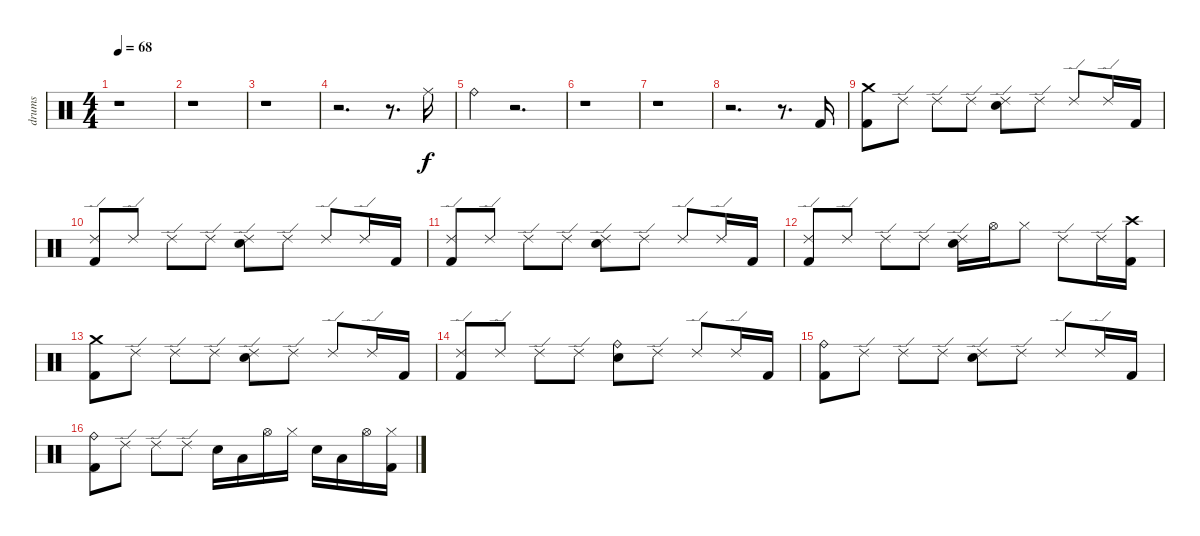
\track ("drums" "drums") {instrument percussion}
\staff {score}
\articulation defaults
\ts (4 4)
\tempo 68
\clef neutral
\ks c
r.1{dy f} |
r.1 |
r.1 |
r.2{d} r.8{d} "Ride (middle)".16 |
"Ride (bell)".4 r.2{d} |
r.1 |
r.1 |
r.2{d} r.8{d} "Kick (hit) 2".16 |
("Crash medium (hit)" "Kick (hit) 2").8 "Ride (edge) 2".8 "Ride (edge) 2".8 "Ride (edge) 2".8 ("Ride (edge) 2" "Electric Snare (hit)").8 "Ride (edge) 2".8 "Ride (edge) 2".8 "Ride (edge) 2".16 "Kick (hit) 2".16 |
("Ride (edge) 2" "Kick (hit) 2").8 "Ride (edge) 2".8 "Ride (edge) 2".8 "Ride (edge) 2".8 ("Ride (edge) 2" "Electric Snare (hit)").8 "Ride (edge) 2".8 "Ride (edge) 2".8 "Ride (edge) 2".16 "Kick (hit) 2".16 |
("Ride (edge) 2" "Kick (hit) 2").8 "Ride (edge) 2".8 "Ride (edge) 2".8 "Ride (edge) 2".8 ("Ride (edge) 2" "Electric Snare (hit)").8 "Ride (edge) 2".8 "Ride (edge) 2".8 "Ride (edge) 2".16 "Kick (hit) 2".16 |
("Ride (edge) 2" "Kick (hit) 2").8 "Ride (edge) 2".8 "Ride (edge) 2".8 "Ride (edge) 2".8 ("Ride (edge) 2" "Electric Snare (hit)").16 "Hi-Hat (open)".16 "Hi-Hat (closed)".8 "Ride (edge) 2".8 "Ride (edge) 2".16 ("Crash high (hit)" "Kick (hit) 2").16 |
("Crash medium (hit)" "Kick (hit) 2").8 "Ride (edge) 2".8 "Ride (edge) 2".8 "Ride (edge) 2".8 ("Ride (edge) 2" "Electric Snare (hit)").8 "Ride (edge) 2".8 "Ride (edge) 2".8 "Ride (edge) 2".16 "Kick (hit) 2".16 |
("Ride (edge) 2" "Kick (hit) 2").8 "Ride (edge) 2".8 "Ride (edge) 2".8 "Ride (edge) 2".8 ("Ride (bell)" "Electric Snare (hit)").8 "Ride (edge) 2".8 "Ride (edge) 2".8 "Ride (edge) 2".16 "Kick (hit) 2".16 |
("Ride (bell)" "Kick (hit) 2").8 "Ride (edge) 2".8 "Ride (edge) 2".8 "Ride (edge) 2".8 ("Ride (edge) 2" "Electric Snare (hit)").8 "Ride (edge) 2".8 "Ride (edge) 2".8 "Ride (edge) 2".16 "Kick (hit) 2".16 |
("Ride (bell)" "Kick (hit) 2").8 "Ride (edge) 2".8 "Ride (edge) 2".8 "Ride (edge) 2".8 "Electric Snare (hit)".16 "Low Tom (hit)".16 "Hi-Hat (open)".16 "Hi-Hat (closed)".16 "Electric Snare (hit)".16 "Low Tom (hit)".16 "Hi-Hat (open)".16 ("Hi-Hat (closed)" "Kick (hit) 2").16
